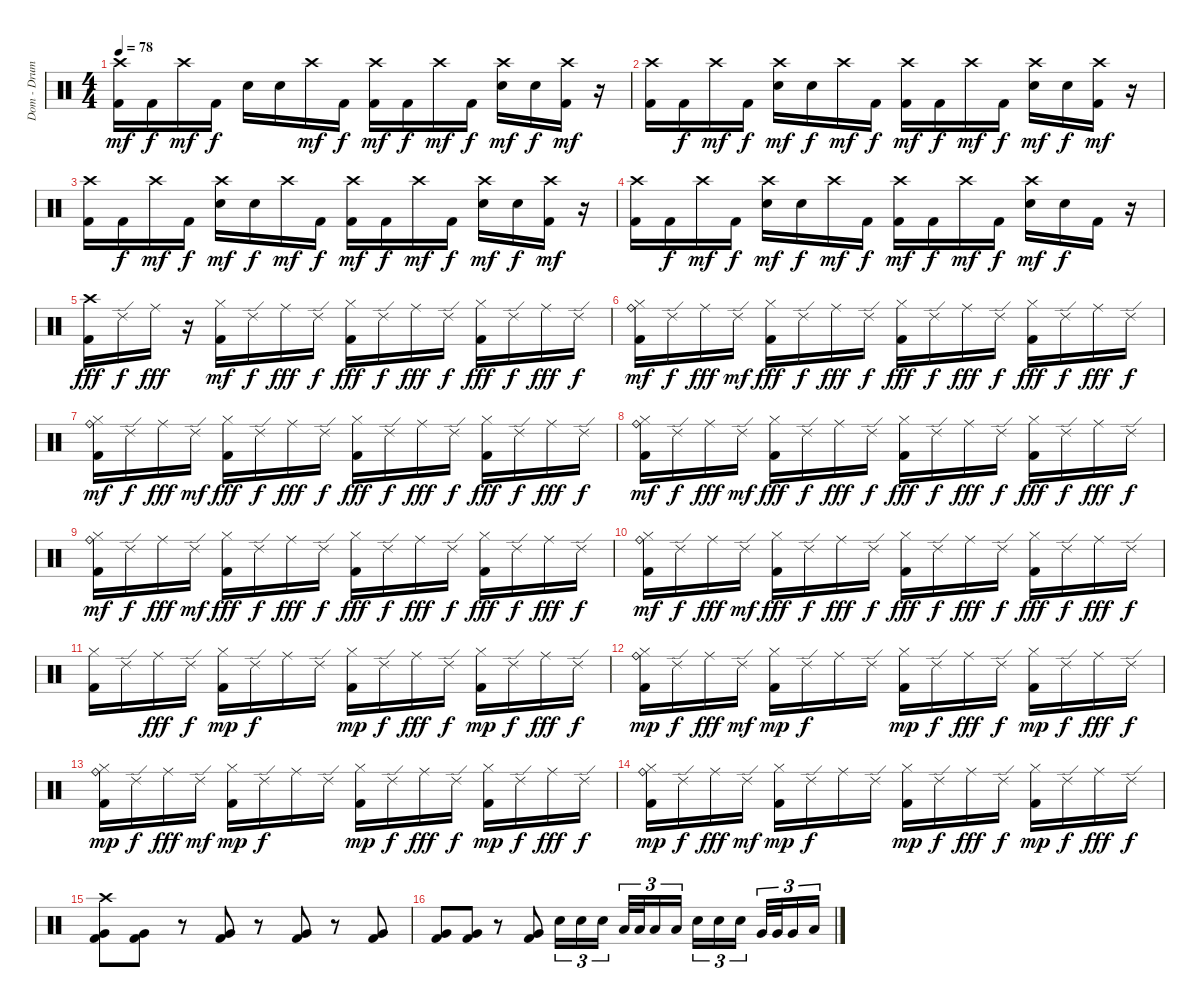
\track ("Dom - Drums" "Dom - Drum") {instrument percussion}
\staff {score}
\articulation defaults
\ts (4 4)
\tempo 78
\clef neutral
\ks c
("Crash high (hit)" "Kick (hit) 2").16{dy mf} "Kick (hit) 2".16{dy f} "Crash high (hit)".16{dy mf} "Kick (hit) 2".16{dy f} "Electric Snare (hit)".16 "Electric Snare (hit)".16 "Crash high (hit)".16{dy mf} "Kick (hit) 2".16{dy f} ("Crash high (hit)" "Kick (hit) 2").16{dy mf} "Kick (hit) 2".16{dy f} "Crash high (hit)".16{dy mf} "Kick (hit) 2".16{dy f} ("Crash high (hit)" "Electric Snare (hit)").16{dy mf} "Electric Snare (hit)".16{dy f} ("Crash high (hit)" "Kick (hit) 2").16{dy mf} r.16 |
("Crash high (hit)" "Kick (hit) 2").16 "Kick (hit) 2".16{dy f} "Crash high (hit)".16{dy mf} "Kick (hit) 2".16{dy f} ("Crash high (hit)" "Electric Snare (hit)").16{dy mf} "Electric Snare (hit)".16{dy f} "Crash high (hit)".16{dy mf} "Kick (hit) 2".16{dy f} ("Crash high (hit)" "Kick (hit) 2").16{dy mf} "Kick (hit) 2".16{dy f} "Crash high (hit)".16{dy mf} "Kick (hit) 2".16{dy f} ("Crash high (hit)" "Electric Snare (hit)").16{dy mf} "Electric Snare (hit)".16{dy f} ("Crash high (hit)" "Kick (hit) 2").16{dy mf} r.16 |
("Crash high (hit)" "Kick (hit) 2").16 "Kick (hit) 2".16{dy f} "Crash high (hit)".16{dy mf} "Kick (hit) 2".16{dy f} ("Crash high (hit)" "Electric Snare (hit)").16{dy mf} "Electric Snare (hit)".16{dy f} "Crash high (hit)".16{dy mf} "Kick (hit) 2".16{dy f} ("Crash high (hit)" "Kick (hit) 2").16{dy mf} "Kick (hit) 2".16{dy f} "Crash high (hit)".16{dy mf} "Kick (hit) 2".16{dy f} ("Crash high (hit)" "Electric Snare (hit)").16{dy mf} "Electric Snare (hit)".16{dy f} ("Crash high (hit)" "Kick (hit) 2").16{dy mf} r.16 |
("Crash high (hit)" "Kick (hit) 2").16 "Kick (hit) 2".16{dy f} "Crash high (hit)".16{dy mf} "Kick (hit) 2".16{dy f} ("Crash high (hit)" "Electric Snare (hit)").16{dy mf} "Electric Snare (hit)".16{dy f} "Crash high (hit)".16{dy mf} "Kick (hit) 2".16{dy f} ("Crash high (hit)" "Kick (hit) 2").16{dy mf} "Kick (hit) 2".16{dy f} "Crash high (hit)".16{dy mf} "Kick (hit) 2".16{dy f} ("Crash high (hit)" "Electric Snare (hit)").16{dy mf} "Electric Snare (hit)".16{dy f} "Kick (hit) 2".16 r.16 |
("Crash high (hit)" "Kick (hit) 2").16{dy fff} "Ride (edge) 2".16{dy f} "Ride (middle)".16{dy fff} r.16 ("Hi-Hat (closed)" "Kick (hit) 2").16{dy mf} "Ride (edge) 2".16{dy f} "Ride (middle)".16{dy fff} "Ride (edge) 2".16{dy f} ("Hi-Hat (closed)" "Kick (hit) 2").16{dy fff} "Ride (edge) 2".16{dy f} "Ride (middle)".16{dy fff} "Ride (edge) 2".16{dy f} ("Hi-Hat (closed)" "Kick (hit) 2").16{dy fff} "Ride (edge) 2".16{dy f} "Ride (middle)".16{dy fff} "Ride (edge) 2".16{dy f} |
("Ride (bell)" "Hi-Hat (closed)" "Kick (hit) 2").16{dy mf} "Ride (edge) 2".16{dy f} "Ride (middle)".16{dy fff} "Ride (edge) 2".16{dy mf} ("Hi-Hat (closed)" "Kick (hit) 2").16{dy fff} "Ride (edge) 2".16{dy f} "Ride (middle)".16{dy fff} "Ride (edge) 2".16{dy f} ("Hi-Hat (closed)" "Kick (hit) 2").16{dy fff} "Ride (edge) 2".16{dy f} "Ride (middle)".16{dy fff} "Ride (edge) 2".16{dy f} ("Hi-Hat (closed)" "Kick (hit) 2").16{dy fff} "Ride (edge) 2".16{dy f} "Ride (middle)".16{dy fff} "Ride (edge) 2".16{dy f} |
("Ride (bell)" "Hi-Hat (closed)" "Kick (hit) 2").16{dy mf} "Ride (edge) 2".16{dy f} "Ride (middle)".16{dy fff} "Ride (edge) 2".16{dy mf} ("Hi-Hat (closed)" "Kick (hit) 2").16{dy fff} "Ride (edge) 2".16{dy f} "Ride (middle)".16{dy fff} "Ride (edge) 2".16{dy f} ("Hi-Hat (closed)" "Kick (hit) 2").16{dy fff} "Ride (edge) 2".16{dy f} "Ride (middle)".16{dy fff} "Ride (edge) 2".16{dy f} ("Hi-Hat (closed)" "Kick (hit) 2").16{dy fff} "Ride (edge) 2".16{dy f} "Ride (middle)".16{dy fff} "Ride (edge) 2".16{dy f} |
("Ride (bell)" "Hi-Hat (closed)" "Kick (hit) 2").16{dy mf} "Ride (edge) 2".16{dy f} "Ride (middle)".16{dy fff} "Ride (edge) 2".16{dy mf} ("Hi-Hat (closed)" "Kick (hit) 2").16{dy fff} "Ride (edge) 2".16{dy f} "Ride (middle)".16{dy fff} "Ride (edge) 2".16{dy f} ("Hi-Hat (closed)" "Kick (hit) 2").16{dy fff} "Ride (edge) 2".16{dy f} "Ride (middle)".16{dy fff} "Ride (edge) 2".16{dy f} ("Hi-Hat (closed)" "Kick (hit) 2").16{dy fff} "Ride (edge) 2".16{dy f} "Ride (middle)".16{dy fff} "Ride (edge) 2".16{dy f} |
("Ride (bell)" "Hi-Hat (closed)" "Kick (hit) 2").16{dy mf} "Ride (edge) 2".16{dy f} "Ride (middle)".16{dy fff} "Ride (edge) 2".16{dy mf} ("Hi-Hat (closed)" "Kick (hit) 2").16{dy fff} "Ride (edge) 2".16{dy f} "Ride (middle)".16{dy fff} "Ride (edge) 2".16{dy f} ("Hi-Hat (closed)" "Kick (hit) 2").16{dy fff} "Ride (edge) 2".16{dy f} "Ride (middle)".16{dy fff} "Ride (edge) 2".16{dy f} ("Hi-Hat (closed)" "Kick (hit) 2").16{dy fff} "Ride (edge) 2".16{dy f} "Ride (middle)".16{dy fff} "Ride (edge) 2".16{dy f} |
("Ride (bell)" "Hi-Hat (closed)" "Kick (hit) 2").16{dy mf} "Ride (edge) 2".16{dy f} "Ride (middle)".16{dy fff} "Ride (edge) 2".16{dy mf} ("Hi-Hat (closed)" "Kick (hit) 2").16{dy fff} "Ride (edge) 2".16{dy f} "Ride (middle)".16{dy fff} "Ride (edge) 2".16{dy f} ("Hi-Hat (closed)" "Kick (hit) 2").16{dy fff} "Ride (edge) 2".16{dy f} "Ride (middle)".16{dy fff} "Ride (edge) 2".16{dy f} ("Hi-Hat (closed)" "Kick (hit) 2").16{dy fff} "Ride (edge) 2".16{dy f} "Ride (middle)".16{dy fff} "Ride (edge) 2".16{dy f} |
("Hi-Hat (closed)" "Kick (hit) 2").16 "Ride (edge) 2".16 "Ride (middle)".16{dy fff} "Ride (edge) 2".16{dy f} ("Hi-Hat (closed)" "Kick (hit) 2").16{dy mp} "Ride (edge) 2".16{dy f} "Ride (middle)".16 "Ride (edge) 2".16 ("Hi-Hat (closed)" "Kick (hit) 2").16{dy mp} "Ride (edge) 2".16{dy f} "Ride (middle)".16{dy fff} "Ride (edge) 2".16{dy f} ("Hi-Hat (closed)" "Kick (hit) 2").16{dy mp} "Ride (edge) 2".16{dy f} "Ride (middle)".16{dy fff} "Ride (edge) 2".16{dy f} |
("Ride (bell)" "Hi-Hat (closed)" "Kick (hit) 2").16{dy mp} "Ride (edge) 2".16{dy f} "Ride (middle)".16{dy fff} "Ride (edge) 2".16{dy mf} ("Hi-Hat (closed)" "Kick (hit) 2").16{dy mp} "Ride (edge) 2".16{dy f} "Ride (middle)".16 "Ride (edge) 2".16 ("Hi-Hat (closed)" "Kick (hit) 2").16{dy mp} "Ride (edge) 2".16{dy f} "Ride (middle)".16{dy fff} "Ride (edge) 2".16{dy f} ("Hi-Hat (closed)" "Kick (hit) 2").16{dy mp} "Ride (edge) 2".16{dy f} "Ride (middle)".16{dy fff} "Ride (edge) 2".16{dy f} |
("Ride (bell)" "Hi-Hat (closed)" "Kick (hit) 2").16{dy mp} "Ride (edge) 2".16{dy f} "Ride (middle)".16{dy fff} "Ride (edge) 2".16{dy mf} ("Hi-Hat (closed)" "Kick (hit) 2").16{dy mp} "Ride (edge) 2".16{dy f} "Ride (middle)".16 "Ride (edge) 2".16 ("Hi-Hat (closed)" "Kick (hit) 2").16{dy mp} "Ride (edge) 2".16{dy f} "Ride (middle)".16{dy fff} "Ride (edge) 2".16{dy f} ("Hi-Hat (closed)" "Kick (hit) 2").16{dy mp} "Ride (edge) 2".16{dy f} "Ride (middle)".16{dy fff} "Ride (edge) 2".16{dy f} |
("Ride (bell)" "Hi-Hat (closed)" "Kick (hit) 2").16{dy mp} "Ride (edge) 2".16{dy f} "Ride (middle)".16{dy fff} "Ride (edge) 2".16{dy mf} ("Hi-Hat (closed)" "Kick (hit) 2").16{dy mp} "Ride (edge) 2".16{dy f} "Ride (middle)".16 "Ride (edge) 2".16 ("Hi-Hat (closed)" "Kick (hit) 2").16{dy mp} "Ride (edge) 2".16{dy f} "Ride (middle)".16{dy fff} "Ride (edge) 2".16{dy f} ("Hi-Hat (closed)" "Kick (hit) 2").16{dy mp} "Ride (edge) 2".16{dy f} "Ride (middle)".16{dy fff} "Ride (edge) 2".16{dy f} |
("Crash high (hit)" "Very Low Tom (hit)" "Kick (hit) 2").8 ("Very Low Tom (hit)" "Kick (hit) 2").8 r.8 ("Very Low Tom (hit)" "Kick (hit) 2").8 r.8 ("Very Low Tom (hit)" "Kick (hit) 2").8 r.8 ("Very Low Tom (hit)" "Kick (hit) 2").8 |
("Very Low Tom (hit)" "Kick (hit) 2").8 ("Very Low Tom (hit)" "Kick (hit) 2").8 r.8 ("Very Low Tom (hit)" "Kick (hit) 2").8 "Electric Snare (hit)".16{tu (3 2)} "Electric Snare (hit)".16{tu (3 2)} "Electric Snare (hit)".16{tu (3 2)} "Low Tom (hit)".32{tu (3 2)} "Low Tom (hit)".32{tu (3 2)} "Low Tom (hit)".16{tu (3 2)} "Low Tom (hit)".16{tu (3 2)} "Electric Snare (hit)".16{tu (3 2)} "Electric Snare (hit)".16{tu (3 2)} "Electric Snare (hit)".16{tu (3 2)} "Very Low Tom (hit)".32{tu (3 2)} "Very Low Tom (hit)".32{tu (3 2)} "Very Low Tom (hit)".16{tu (3 2)} "Low Floor Tom (hit)".16{tu (3 2)}
